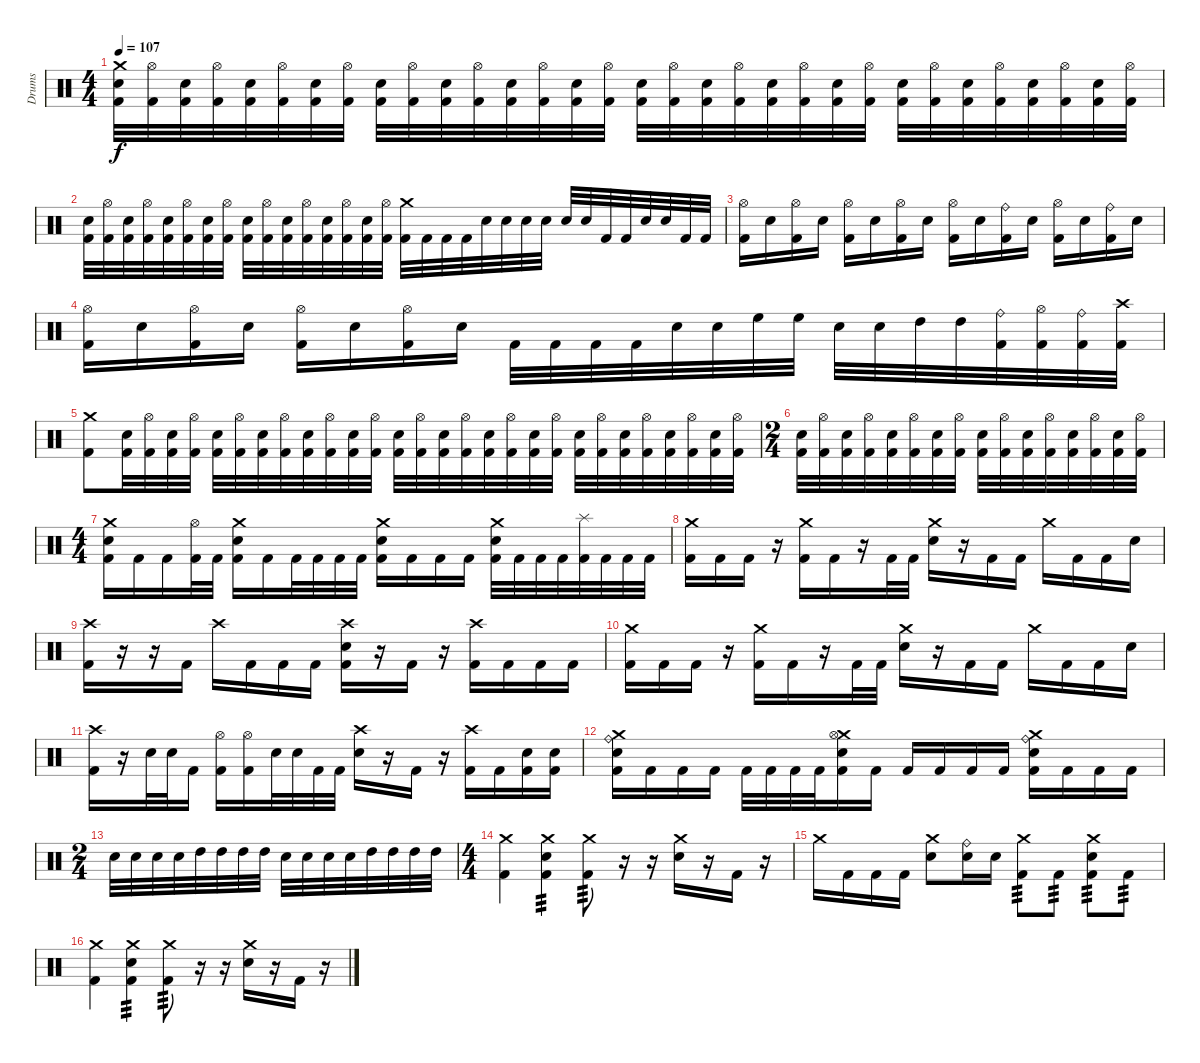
\track ("Drums" "Drums") {instrument percussion}
\staff {score}
\articulation defaults
\ts (4 4)
\tempo 107
\clef neutral
\ks c
("Crash medium (hit)" "Electric Snare (hit)" "Kick (hit) 2").32{dy f} ("Hi-Hat (open)" "Kick (hit) 2").32 ("Electric Snare (hit)" "Kick (hit) 2").32 ("Hi-Hat (open)" "Kick (hit) 2").32 ("Electric Snare (hit)" "Kick (hit) 2").32 ("Hi-Hat (open)" "Kick (hit) 2").32 ("Electric Snare (hit)" "Kick (hit) 2").32 ("Hi-Hat (open)" "Kick (hit) 2").32 ("Electric Snare (hit)" "Kick (hit) 2").32 ("Hi-Hat (open)" "Kick (hit) 2").32 ("Electric Snare (hit)" "Kick (hit) 2").32 ("Hi-Hat (open)" "Kick (hit) 2").32 ("Electric Snare (hit)" "Kick (hit) 2").32 ("Hi-Hat (open)" "Kick (hit) 2").32 ("Electric Snare (hit)" "Kick (hit) 2").32 ("Hi-Hat (open)" "Kick (hit) 2").32 ("Electric Snare (hit)" "Kick (hit) 2").32 ("Hi-Hat (open)" "Kick (hit) 2").32 ("Electric Snare (hit)" "Kick (hit) 2").32 ("Hi-Hat (open)" "Kick (hit) 2").32 ("Electric Snare (hit)" "Kick (hit) 2").32 ("Hi-Hat (open)" "Kick (hit) 2").32 ("Electric Snare (hit)" "Kick (hit) 2").32 ("Hi-Hat (open)" "Kick (hit) 2").32 ("Electric Snare (hit)" "Kick (hit) 2").32 ("Hi-Hat (open)" "Kick (hit) 2").32 ("Electric Snare (hit)" "Kick (hit) 2").32 ("Hi-Hat (open)" "Kick (hit) 2").32 ("Electric Snare (hit)" "Kick (hit) 2").32 ("Hi-Hat (open)" "Kick (hit) 2").32 ("Electric Snare (hit)" "Kick (hit) 2").32 ("Hi-Hat (open)" "Kick (hit) 2").32 |
("Electric Snare (hit)" "Kick (hit) 2").32 ("Hi-Hat (open)" "Kick (hit) 2").32 ("Electric Snare (hit)" "Kick (hit) 2").32 ("Hi-Hat (open)" "Kick (hit) 2").32 ("Electric Snare (hit)" "Kick (hit) 2").32 ("Hi-Hat (open)" "Kick (hit) 2").32 ("Electric Snare (hit)" "Kick (hit) 2").32 ("Hi-Hat (open)" "Kick (hit) 2").32 ("Electric Snare (hit)" "Kick (hit) 2").32 ("Hi-Hat (open)" "Kick (hit) 2").32 ("Electric Snare (hit)" "Kick (hit) 2").32 ("Hi-Hat (open)" "Kick (hit) 2").32 ("Electric Snare (hit)" "Kick (hit) 2").32 ("Hi-Hat (open)" "Kick (hit) 2").32 ("Electric Snare (hit)" "Kick (hit) 2").32 ("Hi-Hat (open)" "Kick (hit) 2").32 ("Crash medium (hit)" "Kick (hit) 2").32 "Kick (hit) 2".32 "Kick (hit) 2".32 "Kick (hit) 2".32 "Electric Snare (hit)".32 "Electric Snare (hit)".32 "Electric Snare (hit)".32 "Electric Snare (hit)".32 "Electric Snare (hit)".32 "Electric Snare (hit)".32 "Kick (hit) 2".32 "Kick (hit) 2".32 "Electric Snare (hit)".32 "Electric Snare (hit)".32 "Kick (hit) 2".32 "Kick (hit) 2".32 |
("Hi-Hat (open)" "Kick (hit) 2").16 "Electric Snare (hit)".16 ("Hi-Hat (open)" "Kick (hit) 2").16 "Electric Snare (hit)".16 ("Hi-Hat (open)" "Kick (hit) 2").16 "Electric Snare (hit)".16 ("Hi-Hat (open)" "Kick (hit) 2").16 "Electric Snare (hit)".16 ("Hi-Hat (open)" "Kick (hit) 2").16 "Electric Snare (hit)".16 ("Ride (bell)" "Kick (hit) 2").16 "Electric Snare (hit)".16 ("Hi-Hat (open)" "Kick (hit) 2").16 "Electric Snare (hit)".16 ("Ride (bell)" "Kick (hit) 2").16 "Electric Snare (hit)".16 |
("Hi-Hat (open)" "Kick (hit) 2").16 "Electric Snare (hit)".16 ("Hi-Hat (open)" "Kick (hit) 2").16 "Electric Snare (hit)".16 ("Hi-Hat (open)" "Kick (hit) 2").16 "Electric Snare (hit)".16 ("Hi-Hat (open)" "Kick (hit) 2").16 "Electric Snare (hit)".16 "Kick (hit) 2".32 "Kick (hit) 2".32 "Kick (hit) 2".32 "Kick (hit) 2".32 "Electric Snare (hit)".32 "Electric Snare (hit)".32 "High Floor Tom (hit)".32 "High Floor Tom (hit)".32 "Electric Snare (hit)".32 "Electric Snare (hit)".32 "High Tom (hit)".32 "High Tom (hit)".32 ("Ride (bell)" "Kick (hit) 2").32 ("Hi-Hat (open)" "Kick (hit) 2").32 ("Ride (bell)" "Kick (hit) 2").32 ("Crash high (hit)" "Kick (hit) 2").32 |
("Crash medium (hit)" "Kick (hit) 2").8 ("Electric Snare (hit)" "Kick (hit) 2").32 ("Hi-Hat (open)" "Kick (hit) 2").32 ("Electric Snare (hit)" "Kick (hit) 2").32 ("Hi-Hat (open)" "Kick (hit) 2").32 ("Electric Snare (hit)" "Kick (hit) 2").32 ("Hi-Hat (open)" "Kick (hit) 2").32 ("Electric Snare (hit)" "Kick (hit) 2").32 ("Hi-Hat (open)" "Kick (hit) 2").32 ("Electric Snare (hit)" "Kick (hit) 2").32 ("Hi-Hat (open)" "Kick (hit) 2").32 ("Electric Snare (hit)" "Kick (hit) 2").32 ("Hi-Hat (open)" "Kick (hit) 2").32 ("Electric Snare (hit)" "Kick (hit) 2").32 ("Hi-Hat (open)" "Kick (hit) 2").32 ("Electric Snare (hit)" "Kick (hit) 2").32 ("Hi-Hat (open)" "Kick (hit) 2").32 ("Electric Snare (hit)" "Kick (hit) 2").32 ("Hi-Hat (open)" "Kick (hit) 2").32 ("Electric Snare (hit)" "Kick (hit) 2").32 ("Hi-Hat (open)" "Kick (hit) 2").32 ("Electric Snare (hit)" "Kick (hit) 2").32 ("Hi-Hat (open)" "Kick (hit) 2").32 ("Electric Snare (hit)" "Kick (hit) 2").32 ("Hi-Hat (open)" "Kick (hit) 2").32 ("Electric Snare (hit)" "Kick (hit) 2").32 ("Hi-Hat (open)" "Kick (hit) 2").32 ("Electric Snare (hit)" "Kick (hit) 2").32 ("Hi-Hat (open)" "Kick (hit) 2").32 |
\ts (2 4)
("Electric Snare (hit)" "Kick (hit) 2").32 ("Hi-Hat (open)" "Kick (hit) 2").32 ("Electric Snare (hit)" "Kick (hit) 2").32 ("Hi-Hat (open)" "Kick (hit) 2").32 ("Electric Snare (hit)" "Kick (hit) 2").32 ("Hi-Hat (open)" "Kick (hit) 2").32 ("Electric Snare (hit)" "Kick (hit) 2").32 ("Hi-Hat (open)" "Kick (hit) 2").32 ("Electric Snare (hit)" "Kick (hit) 2").32 ("Hi-Hat (open)" "Kick (hit) 2").32 ("Electric Snare (hit)" "Kick (hit) 2").32 ("Hi-Hat (open)" "Kick (hit) 2").32 ("Electric Snare (hit)" "Kick (hit) 2").32 ("Hi-Hat (open)" "Kick (hit) 2").32 ("Electric Snare (hit)" "Kick (hit) 2").32 ("Hi-Hat (open)" "Kick (hit) 2").32 |
\ts (4 4)
("Crash medium (hit)" "Electric Snare (hit)" "Kick (hit) 2").16 "Kick (hit) 2".16 "Kick (hit) 2".16 ("Hi-Hat (open)" "Kick (hit) 2").32 "Kick (hit) 2".32 ("Crash medium (hit)" "Electric Snare (hit)" "Kick (hit) 2").16 "Kick (hit) 2".16 "Kick (hit) 2".32 "Kick (hit) 2".32 "Kick (hit) 2".32 "Kick (hit) 2".32 ("Crash medium (hit)" "Electric Snare (hit)" "Kick (hit) 2").16 "Kick (hit) 2".16 "Kick (hit) 2".16 "Kick (hit) 2".16 ("Crash medium (hit)" "Electric Snare (hit)" "Kick (hit) 2").32 "Kick (hit) 2".32 "Kick (hit) 2".32 "Kick (hit) 2".32 ("Splash (hit)" "Kick (hit) 2").32 "Kick (hit) 2".32 "Kick (hit) 2".32 "Kick (hit) 2".32 |
("Crash medium (hit)" "Kick (hit) 2").16 "Kick (hit) 2".16 "Kick (hit) 2".16 r.16 ("Crash medium (hit)" "Kick (hit) 2").16 "Kick (hit) 2".16 r.16 "Kick (hit) 2".32 "Kick (hit) 2".32 ("Crash medium (hit)" "Electric Snare (hit)").16 r.16 "Kick (hit) 2".16 "Kick (hit) 2".16 "Crash medium (hit)".16 "Kick (hit) 2".16 "Kick (hit) 2".16 "Electric Snare (hit)".16 |
("Crash high (hit)" "Kick (hit) 2").16 r.16 r.16 "Kick (hit) 2".16 "Crash high (hit)".16 "Kick (hit) 2".16 "Kick (hit) 2".16 "Kick (hit) 2".16 ("Crash high (hit)" "Electric Snare (hit)" "Kick (hit) 2").16 r.16 "Kick (hit) 2".16 r.16 ("Crash high (hit)" "Kick (hit) 2").16 "Kick (hit) 2".16 "Kick (hit) 2".16 "Kick (hit) 2".16 |
("Crash medium (hit)" "Kick (hit) 2").16 "Kick (hit) 2".16 "Kick (hit) 2".16 r.16 ("Crash medium (hit)" "Kick (hit) 2").16 "Kick (hit) 2".16 r.16 "Kick (hit) 2".32 "Kick (hit) 2".32 ("Crash medium (hit)" "Electric Snare (hit)").16 r.16 "Kick (hit) 2".16 "Kick (hit) 2".16 "Crash medium (hit)".16 "Kick (hit) 2".16 "Kick (hit) 2".16 "Electric Snare (hit)".16 |
("Crash high (hit)" "Kick (hit) 2").16 r.16 "Electric Snare (hit)".32 "Electric Snare (hit)".32 "Kick (hit) 2".16 ("Hi-Hat (open)" "Kick (hit) 2").16 ("Hi-Hat (open)" "Kick (hit) 2").16 "Electric Snare (hit)".32 "Electric Snare (hit)".32 "Kick (hit) 2".32 "Kick (hit) 2".32 ("Crash high (hit)" "Electric Snare (hit)").16 r.16 "Kick (hit) 2".16 r.16 ("Crash high (hit)" "Kick (hit) 2").16 "Kick (hit) 2".16 ("Electric Snare (hit)" "Kick (hit) 2").16 ("Electric Snare (hit)" "Kick (hit) 2").16 |
("Crash medium (hit)" "Ride (bell)" "Electric Snare (hit)" "Kick (hit) 2").16 "Kick (hit) 2".16 "Kick (hit) 2".16 "Kick (hit) 2".16 "Kick (hit) 2".32 "Kick (hit) 2".32 "Kick (hit) 2".32 "Kick (hit) 2".32 ("Crash medium (hit)" "Hi-Hat (open)" "Electric Snare (hit)" "Kick (hit) 2").16 "Kick (hit) 2".16 "Kick (hit) 2".16 "Kick (hit) 2".16 "Kick (hit) 2".16 "Kick (hit) 2".16 ("Crash medium (hit)" "Ride (bell)" "Electric Snare (hit)" "Kick (hit) 2").16 "Kick (hit) 2".16 "Kick (hit) 2".16 "Kick (hit) 2".16 |
\ts (2 4)
"Electric Snare (hit)".32 "Electric Snare (hit)".32 "Electric Snare (hit)".32 "Electric Snare (hit)".32 "High Tom (hit)".32 "High Tom (hit)".32 "High Tom (hit)".32 "High Tom (hit)".32 "Electric Snare (hit)".32 "Electric Snare (hit)".32 "Electric Snare (hit)".32 "Electric Snare (hit)".32 "High Tom (hit)".32 "High Tom (hit)".32 "High Tom (hit)".32 "High Tom (hit)".32 |
\ts (4 4)
("Crash medium (hit)" "Kick (hit) 2").4 ("Crash medium (hit)" "Electric Snare (hit)" "Kick (hit) 2").4{tp 3} ("Crash medium (hit)" "Kick (hit) 2").8{tp 3} r.16 r.16 ("Crash medium (hit)" "Electric Snare (hit)").16 r.16 "Kick (hit) 2".16 r.16 |
"Crash medium (hit)".16 "Kick (hit) 2".16 "Kick (hit) 2".16 "Kick (hit) 2".16 ("Crash medium (hit)" "Electric Snare (hit)").8 ("Ride (bell)" "Electric Snare (hit)").16 "Electric Snare (hit)".16 ("Crash medium (hit)" "Kick (hit) 2").8{tp 3} "Kick (hit) 2".8{tp 3} ("Crash medium (hit)" "Electric Snare (hit)" "Kick (hit) 2").8{tp 3} "Kick (hit) 2".8{tp 3} |
("Crash medium (hit)" "Kick (hit) 2").4 ("Crash medium (hit)" "Electric Snare (hit)" "Kick (hit) 2").4{tp 3} ("Crash medium (hit)" "Kick (hit) 2").8{tp 3} r.16 r.16 ("Crash medium (hit)" "Electric Snare (hit)").16 r.16 "Kick (hit) 2".16 r.16
